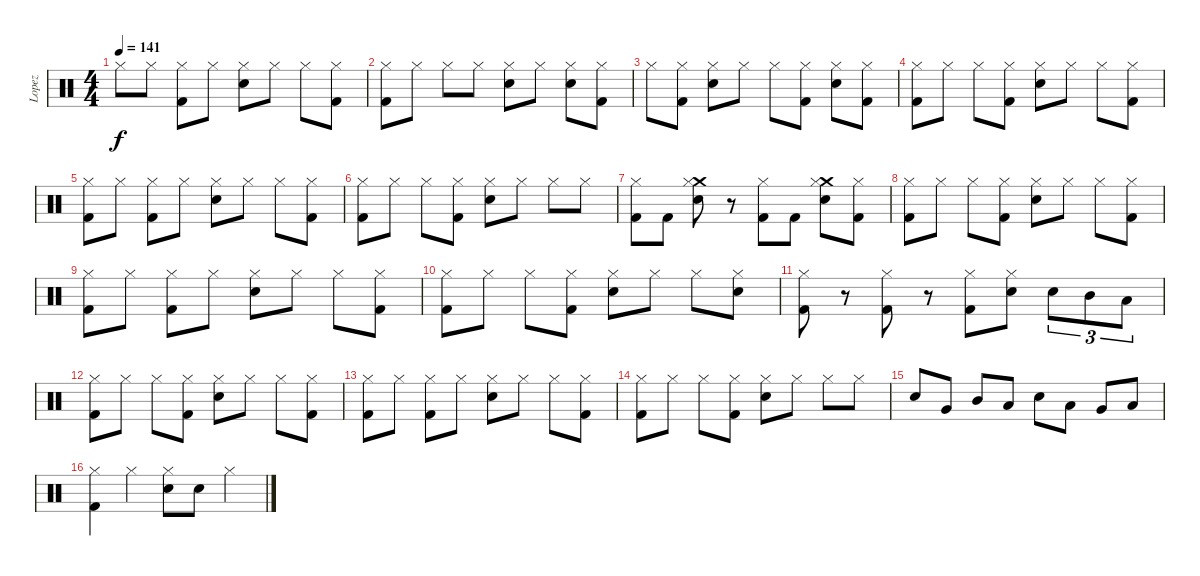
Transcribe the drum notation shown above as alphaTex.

\track ("Lopez" "Lopez") {instrument percussion}
\staff {score}
\articulation defaults
\ts (4 4)
\tempo 141
\clef neutral
\ks c "Hi-Hat (closed)".8{dy f} "Hi-Hat (closed)".8
("Hi-Hat (closed)" "Kick (hit) 2").8 "Hi-Hat (closed)".8 ("Hi-Hat (closed)" "Electric Snare (hit)").8 "Hi-Hat (closed)".8 "Hi-Hat (closed)".8 ("Hi-Hat (closed)" "Kick (hit) 2").8 |
("Hi-Hat (closed)" "Kick (hit) 2").8 "Hi-Hat (closed)".8 "Hi-Hat (closed)".8 "Hi-Hat (closed)".8 ("Hi-Hat (closed)" "Electric Snare (hit)").8 "Hi-Hat (closed)".8 ("Hi-Hat (closed)" "Electric Snare (hit)").8 ("Hi-Hat (closed)" "Kick (hit) 2").8 |
"Hi-Hat (closed)".8 ("Hi-Hat (closed)" "Kick (hit) 2").8 ("Hi-Hat (closed)" "Electric Snare (hit)").8 "Hi-Hat (closed)".8 "Hi-Hat (closed)".8 ("Hi-Hat (closed)" "Kick (hit) 2").8 ("Hi-Hat (closed)" "Electric Snare (hit)").8 ("Hi-Hat (closed)" "Kick (hit) 2").8 |
("Hi-Hat (closed)" "Kick (hit) 2").8 "Hi-Hat (closed)".8 "Hi-Hat (closed)".8 ("Hi-Hat (closed)" "Kick (hit) 2").8 ("Hi-Hat (closed)" "Electric Snare (hit)").8 "Hi-Hat (closed)".8 "Hi-Hat (closed)".8 ("Hi-Hat (closed)" "Kick (hit) 2").8 |
("Hi-Hat (closed)" "Kick (hit) 2").8 "Hi-Hat (closed)".8 ("Hi-Hat (closed)" "Kick (hit) 2").8 "Hi-Hat (closed)".8 ("Hi-Hat (closed)" "Electric Snare (hit)").8 "Hi-Hat (closed)".8 "Hi-Hat (closed)".8 ("Hi-Hat (closed)" "Kick (hit) 2").8 |
("Hi-Hat (closed)" "Kick (hit) 2").8 "Hi-Hat (closed)".8 "Hi-Hat (closed)".8 ("Hi-Hat (closed)" "Kick (hit) 2").8 ("Hi-Hat (closed)" "Electric Snare (hit)").8 "Hi-Hat (closed)".8 "Hi-Hat (closed)".8 "Hi-Hat (closed)".8 |
("Hi-Hat (closed)" "Kick (hit) 2").8 "Kick (hit) 2".8 ("Crash medium (hit)" "Hi-Hat (closed)" "Electric Snare (hit)").8 r.8 ("Hi-Hat (closed)" "Kick (hit) 2").8 "Kick (hit) 2".8 ("Crash medium (hit)" "Hi-Hat (closed)" "Electric Snare (hit)").8 ("Hi-Hat (closed)" "Kick (hit) 2").8 |
("Hi-Hat (closed)" "Kick (hit) 2").8 "Hi-Hat (closed)".8 "Hi-Hat (closed)".8 ("Hi-Hat (closed)" "Kick (hit) 2").8 ("Hi-Hat (closed)" "Electric Snare (hit)").8 "Hi-Hat (closed)".8 "Hi-Hat (closed)".8 ("Hi-Hat (closed)" "Kick (hit) 2").8 |
("Hi-Hat (closed)" "Kick (hit) 2").8 "Hi-Hat (closed)".8 ("Hi-Hat (closed)" "Kick (hit) 2").8 "Hi-Hat (closed)".8 ("Hi-Hat (closed)" "Electric Snare (hit)").8 "Hi-Hat (closed)".8 "Hi-Hat (closed)".8 ("Hi-Hat (closed)" "Kick (hit) 2").8 |
("Hi-Hat (closed)" "Kick (hit) 2").8 "Hi-Hat (closed)".8 "Hi-Hat (closed)".8 ("Hi-Hat (closed)" "Kick (hit) 2").8 ("Hi-Hat (closed)" "Electric Snare (hit)").8 "Hi-Hat (closed)".8 "Hi-Hat (closed)".8 ("Hi-Hat (closed)" "Electric Snare (hit)").8 |
("Hi-Hat (closed)" "Kick (hit) 2").8 r.8 ("Hi-Hat (closed)" "Kick (hit) 2").8 r.8 ("Hi-Hat (closed)" "Kick (hit) 2").8 ("Hi-Hat (closed)" "Electric Snare (hit)").8 "Electric Snare (hit)".8{tu (3 2)} "Mid Tom (hit)".8{tu (3 2)} "Low Tom (hit)".8{tu (3 2)} |
("Hi-Hat (closed)" "Kick (hit) 2").8 "Hi-Hat (closed)".8 "Hi-Hat (closed)".8 ("Hi-Hat (closed)" "Kick (hit) 2").8 ("Hi-Hat (closed)" "Electric Snare (hit)").8 "Hi-Hat (closed)".8 "Hi-Hat (closed)".8 ("Hi-Hat (closed)" "Kick (hit) 2").8 |
("Hi-Hat (closed)" "Kick (hit) 2").8 "Hi-Hat (closed)".8 ("Hi-Hat (closed)" "Kick (hit) 2").8 "Hi-Hat (closed)".8 ("Hi-Hat (closed)" "Electric Snare (hit)").8 "Hi-Hat (closed)".8 "Hi-Hat (closed)".8 ("Hi-Hat (closed)" "Kick (hit) 2").8 |
("Hi-Hat (closed)" "Kick (hit) 2").8 "Hi-Hat (closed)".8 "Hi-Hat (closed)".8 ("Hi-Hat (closed)" "Kick (hit) 2").8 ("Hi-Hat (closed)" "Electric Snare (hit)").8 "Hi-Hat (closed)".8 "Hi-Hat (closed)".8 "Hi-Hat (closed)".8 |
"Electric Snare (hit)".8 "Very Low Tom (hit)".8 "Mid Tom (hit)".8 "Low Tom (hit)".8 "Electric Snare (hit)".8 "Low Tom (hit)".8 "Very Low Tom (hit)".8 "Low Floor Tom (hit)".8 |
("Hi-Hat (closed)" "Kick (hit) 2").4 "Hi-Hat (closed)".4 ("Hi-Hat (closed)" "Electric Snare (hit)").8 "Electric Snare (hit)".8 "Hi-Hat (closed)".4
